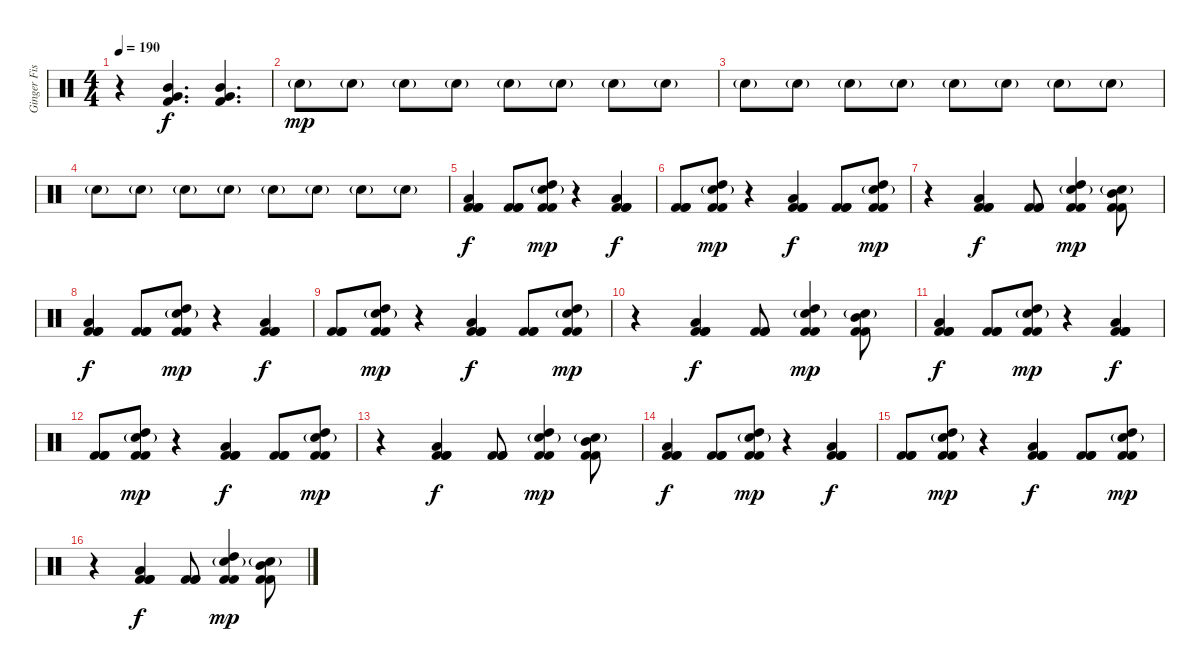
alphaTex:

\track ("Ginger Fish" "Ginger Fis") {instrument percussion}
\staff {score}
\articulation defaults
\ts (4 4)
\tempo 190
\clef neutral
\ks c
r.4{dy f} ("Mid Tom (hit)" "Very Low Tom (hit)" "Kick (hit) 2").4{d} ("Mid Tom (hit)" "Very Low Tom (hit)" "Kick (hit) 2").4{d} |
"Electric Snare (hit)"{g}.8{dy mp} "Electric Snare (hit)"{g}.8 "Electric Snare (hit)"{g}.8 "Electric Snare (hit)"{g}.8 "Electric Snare (hit)"{g}.8 "Electric Snare (hit)"{g}.8 "Electric Snare (hit)"{g}.8 "Electric Snare (hit)"{g}.8 |
"Electric Snare (hit)"{g}.8 "Electric Snare (hit)"{g}.8 "Electric Snare (hit)"{g}.8 "Electric Snare (hit)"{g}.8 "Electric Snare (hit)"{g}.8 "Electric Snare (hit)"{g}.8 "Electric Snare (hit)"{g}.8 "Electric Snare (hit)"{g}.8 |
"Electric Snare (hit)"{g}.8 "Electric Snare (hit)"{g}.8 "Electric Snare (hit)"{g}.8 "Electric Snare (hit)"{g}.8 "Electric Snare (hit)"{g}.8 "Electric Snare (hit)"{g}.8 "Electric Snare (hit)"{g}.8 "Electric Snare (hit)"{g}.8 |
("Low Tom (hit)" "Kick (hit) 2" "Kick (hit) 2" "Kick (hit) 2").4{dy f} ("Kick (hit) 2" "Kick (hit) 2" "Kick (hit) 2").8 ("High Tom (hit)" "Electric Snare (hit)"{g} "Kick (hit) 2" "Kick (hit) 2").8{dy mp} r.4 ("Low Tom (hit)" "Kick (hit) 2" "Kick (hit) 2" "Kick (hit) 2").4{dy f} |
("Kick (hit) 2" "Kick (hit) 2" "Kick (hit) 2").8 ("High Tom (hit)" "Electric Snare (hit)"{g} "Kick (hit) 2" "Kick (hit) 2").8{dy mp} r.4 ("Low Tom (hit)" "Kick (hit) 2" "Kick (hit) 2" "Kick (hit) 2").4{dy f} ("Kick (hit) 2" "Kick (hit) 2" "Kick (hit) 2").8 ("High Tom (hit)" "Electric Snare (hit)"{g} "Kick (hit) 2" "Kick (hit) 2").8{dy mp} |
r.4 ("Low Tom (hit)" "Kick (hit) 2" "Kick (hit) 2" "Kick (hit) 2").4{dy f} ("Kick (hit) 2" "Kick (hit) 2" "Kick (hit) 2").8 ("High Tom (hit)" "Electric Snare (hit)"{g} "Kick (hit) 2" "Kick (hit) 2").4{dy mp} ("Mid Tom (hit)" "Electric Snare (hit)"{g} "Kick (hit) 2" "Kick (hit) 2").8 |
("Low Tom (hit)" "Kick (hit) 2" "Kick (hit) 2" "Kick (hit) 2").4{dy f} ("Kick (hit) 2" "Kick (hit) 2" "Kick (hit) 2").8 ("High Tom (hit)" "Electric Snare (hit)"{g} "Kick (hit) 2" "Kick (hit) 2").8{dy mp} r.4 ("Low Tom (hit)" "Kick (hit) 2" "Kick (hit) 2" "Kick (hit) 2").4{dy f} |
("Kick (hit) 2" "Kick (hit) 2" "Kick (hit) 2").8 ("High Tom (hit)" "Electric Snare (hit)"{g} "Kick (hit) 2" "Kick (hit) 2").8{dy mp} r.4 ("Low Tom (hit)" "Kick (hit) 2" "Kick (hit) 2" "Kick (hit) 2").4{dy f} ("Kick (hit) 2" "Kick (hit) 2" "Kick (hit) 2").8 ("High Tom (hit)" "Electric Snare (hit)"{g} "Kick (hit) 2" "Kick (hit) 2").8{dy mp} |
r.4 ("Low Tom (hit)" "Kick (hit) 2" "Kick (hit) 2" "Kick (hit) 2").4{dy f} ("Kick (hit) 2" "Kick (hit) 2" "Kick (hit) 2").8 ("High Tom (hit)" "Electric Snare (hit)"{g} "Kick (hit) 2" "Kick (hit) 2").4{dy mp} ("Mid Tom (hit)" "Electric Snare (hit)"{g} "Kick (hit) 2" "Kick (hit) 2").8 |
("Low Tom (hit)" "Kick (hit) 2" "Kick (hit) 2" "Kick (hit) 2").4{dy f} ("Kick (hit) 2" "Kick (hit) 2" "Kick (hit) 2").8 ("High Tom (hit)" "Electric Snare (hit)"{g} "Kick (hit) 2" "Kick (hit) 2").8{dy mp} r.4 ("Low Tom (hit)" "Kick (hit) 2" "Kick (hit) 2" "Kick (hit) 2").4{dy f} |
("Kick (hit) 2" "Kick (hit) 2" "Kick (hit) 2").8 ("High Tom (hit)" "Electric Snare (hit)"{g} "Kick (hit) 2" "Kick (hit) 2").8{dy mp} r.4 ("Low Tom (hit)" "Kick (hit) 2" "Kick (hit) 2" "Kick (hit) 2").4{dy f} ("Kick (hit) 2" "Kick (hit) 2" "Kick (hit) 2").8 ("High Tom (hit)" "Electric Snare (hit)"{g} "Kick (hit) 2" "Kick (hit) 2").8{dy mp} |
r.4 ("Low Tom (hit)" "Kick (hit) 2" "Kick (hit) 2" "Kick (hit) 2").4{dy f} ("Kick (hit) 2" "Kick (hit) 2" "Kick (hit) 2").8 ("High Tom (hit)" "Electric Snare (hit)"{g} "Kick (hit) 2" "Kick (hit) 2").4{dy mp} ("Mid Tom (hit)" "Electric Snare (hit)"{g} "Kick (hit) 2" "Kick (hit) 2").8 |
("Low Tom (hit)" "Kick (hit) 2" "Kick (hit) 2" "Kick (hit) 2").4{dy f} ("Kick (hit) 2" "Kick (hit) 2" "Kick (hit) 2").8 ("High Tom (hit)" "Electric Snare (hit)"{g} "Kick (hit) 2" "Kick (hit) 2").8{dy mp} r.4 ("Low Tom (hit)" "Kick (hit) 2" "Kick (hit) 2" "Kick (hit) 2").4{dy f} |
("Kick (hit) 2" "Kick (hit) 2" "Kick (hit) 2").8 ("High Tom (hit)" "Electric Snare (hit)"{g} "Kick (hit) 2" "Kick (hit) 2").8{dy mp} r.4 ("Low Tom (hit)" "Kick (hit) 2" "Kick (hit) 2" "Kick (hit) 2").4{dy f} ("Kick (hit) 2" "Kick (hit) 2" "Kick (hit) 2").8 ("High Tom (hit)" "Electric Snare (hit)"{g} "Kick (hit) 2" "Kick (hit) 2").8{dy mp} |
r.4 ("Low Tom (hit)" "Kick (hit) 2" "Kick (hit) 2" "Kick (hit) 2").4{dy f} ("Kick (hit) 2" "Kick (hit) 2" "Kick (hit) 2").8 ("High Tom (hit)" "Electric Snare (hit)"{g} "Kick (hit) 2" "Kick (hit) 2").4{dy mp} ("Mid Tom (hit)" "Electric Snare (hit)"{g} "Kick (hit) 2" "Kick (hit) 2").8
